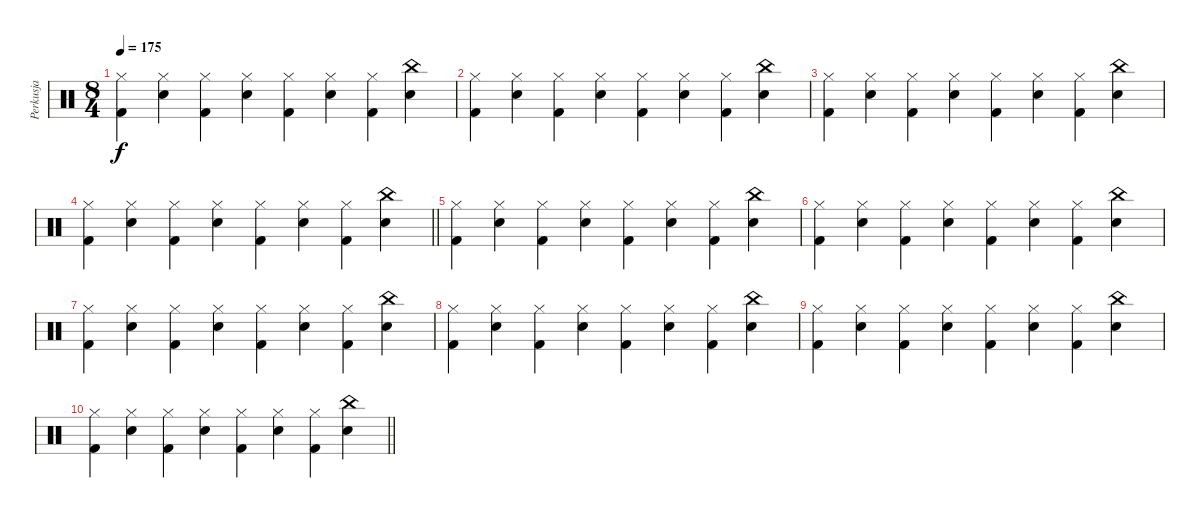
\track ("Perkusja" "Perkusja") {instrument percussion}
\staff {score}
\articulation defaults
\ts (8 4)
\tempo 175
\clef neutral
\ks c
("Hi-Hat (closed)" "Kick (hit) 2").4{dy f} ("Hi-Hat (closed)" "Electric Snare (hit)").4 ("Hi-Hat (closed)" "Kick (hit) 2").4 ("Hi-Hat (closed)" "Electric Snare (hit)").4 ("Hi-Hat (closed)" "Kick (hit) 2").4 ("Hi-Hat (closed)" "Electric Snare (hit)").4 ("Hi-Hat (closed)" "Kick (hit) 2").4 ("China (hit)" "Electric Snare (hit)").4 |
("Hi-Hat (closed)" "Kick (hit) 2").4 ("Hi-Hat (closed)" "Electric Snare (hit)").4 ("Hi-Hat (closed)" "Kick (hit) 2").4 ("Hi-Hat (closed)" "Electric Snare (hit)").4 ("Hi-Hat (closed)" "Kick (hit) 2").4 ("Hi-Hat (closed)" "Electric Snare (hit)").4 ("Hi-Hat (closed)" "Kick (hit) 2").4 ("China (hit)" "Electric Snare (hit)").4 |
("Hi-Hat (closed)" "Kick (hit) 2").4 ("Hi-Hat (closed)" "Electric Snare (hit)").4 ("Hi-Hat (closed)" "Kick (hit) 2").4 ("Hi-Hat (closed)" "Electric Snare (hit)").4 ("Hi-Hat (closed)" "Kick (hit) 2").4 ("Hi-Hat (closed)" "Electric Snare (hit)").4 ("Hi-Hat (closed)" "Kick (hit) 2").4 ("China (hit)" "Electric Snare (hit)").4 |
\barLineRight lightlight
("Hi-Hat (closed)" "Kick (hit) 2").4 ("Hi-Hat (closed)" "Electric Snare (hit)").4 ("Hi-Hat (closed)" "Kick (hit) 2").4 ("Hi-Hat (closed)" "Electric Snare (hit)").4 ("Hi-Hat (closed)" "Kick (hit) 2").4 ("Hi-Hat (closed)" "Electric Snare (hit)").4 ("Hi-Hat (closed)" "Kick (hit) 2").4 ("China (hit)" "Electric Snare (hit)").4 |
("Hi-Hat (closed)" "Kick (hit) 2").4 ("Hi-Hat (closed)" "Electric Snare (hit)").4 ("Hi-Hat (closed)" "Kick (hit) 2").4 ("Hi-Hat (closed)" "Electric Snare (hit)").4 ("Hi-Hat (closed)" "Kick (hit) 2").4 ("Hi-Hat (closed)" "Electric Snare (hit)").4 ("Hi-Hat (closed)" "Kick (hit) 2").4 ("China (hit)" "Electric Snare (hit)").4 |
("Hi-Hat (closed)" "Kick (hit) 2").4 ("Hi-Hat (closed)" "Electric Snare (hit)").4 ("Hi-Hat (closed)" "Kick (hit) 2").4 ("Hi-Hat (closed)" "Electric Snare (hit)").4 ("Hi-Hat (closed)" "Kick (hit) 2").4 ("Hi-Hat (closed)" "Electric Snare (hit)").4 ("Hi-Hat (closed)" "Kick (hit) 2").4 ("China (hit)" "Electric Snare (hit)").4 |
("Hi-Hat (closed)" "Kick (hit) 2").4 ("Hi-Hat (closed)" "Electric Snare (hit)").4 ("Hi-Hat (closed)" "Kick (hit) 2").4 ("Hi-Hat (closed)" "Electric Snare (hit)").4 ("Hi-Hat (closed)" "Kick (hit) 2").4 ("Hi-Hat (closed)" "Electric Snare (hit)").4 ("Hi-Hat (closed)" "Kick (hit) 2").4 ("China (hit)" "Electric Snare (hit)").4 |
("Hi-Hat (closed)" "Kick (hit) 2").4 ("Hi-Hat (closed)" "Electric Snare (hit)").4 ("Hi-Hat (closed)" "Kick (hit) 2").4 ("Hi-Hat (closed)" "Electric Snare (hit)").4 ("Hi-Hat (closed)" "Kick (hit) 2").4 ("Hi-Hat (closed)" "Electric Snare (hit)").4 ("Hi-Hat (closed)" "Kick (hit) 2").4 ("China (hit)" "Electric Snare (hit)").4 |
("Hi-Hat (closed)" "Kick (hit) 2").4 ("Hi-Hat (closed)" "Electric Snare (hit)").4 ("Hi-Hat (closed)" "Kick (hit) 2").4 ("Hi-Hat (closed)" "Electric Snare (hit)").4 ("Hi-Hat (closed)" "Kick (hit) 2").4 ("Hi-Hat (closed)" "Electric Snare (hit)").4 ("Hi-Hat (closed)" "Kick (hit) 2").4 ("China (hit)" "Electric Snare (hit)").4 |
\barLineRight lightlight
("Hi-Hat (closed)" "Kick (hit) 2").4 ("Hi-Hat (closed)" "Electric Snare (hit)").4 ("Hi-Hat (closed)" "Kick (hit) 2").4 ("Hi-Hat (closed)" "Electric Snare (hit)").4 ("Hi-Hat (closed)" "Kick (hit) 2").4 ("Hi-Hat (closed)" "Electric Snare (hit)").4 ("Hi-Hat (closed)" "Kick (hit) 2").4 ("China (hit)" "Electric Snare (hit)").4
